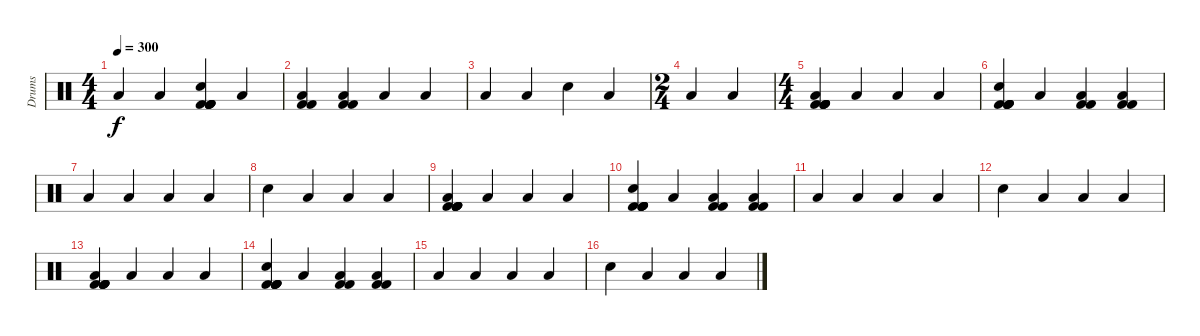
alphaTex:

\track ("Drums" "Drums") {instrument percussion}
\staff {score}
\articulation defaults
\ts (4 4)
\tempo 300
\clef neutral
\ks c "Low Floor Tom (hit)".4{dy f} "Low Floor Tom (hit)".4
("Electric Snare (hit)" "Kick (hit) 2" "Kick (hit) 2" "Kick (hit) 2" "Kick (hit) 2" "Kick (hit) 2").4 "Low Floor Tom (hit)".4 |
("Low Floor Tom (hit)" "Kick (hit) 2" "Kick (hit) 2").4 ("Low Floor Tom (hit)" "Kick (hit) 2" "Kick (hit) 2").4 "Low Floor Tom (hit)".4 "Low Floor Tom (hit)".4 |
"Low Floor Tom (hit)".4 "Low Floor Tom (hit)".4 "Electric Snare (hit)".4 "Low Floor Tom (hit)".4 |
\ts (2 4)
"Low Floor Tom (hit)".4 "Low Floor Tom (hit)".4 |
\ts (4 4)
("Low Floor Tom (hit)" "Kick (hit) 2" "Kick (hit) 2" "Kick (hit) 2" "Kick (hit) 2" "Kick (hit) 2").4 "Low Floor Tom (hit)".4 "Low Floor Tom (hit)".4 "Low Floor Tom (hit)".4 |
("Electric Snare (hit)" "Kick (hit) 2" "Kick (hit) 2" "Kick (hit) 2" "Kick (hit) 2" "Kick (hit) 2").4 "Low Floor Tom (hit)".4 ("Low Floor Tom (hit)" "Kick (hit) 2" "Kick (hit) 2").4 ("Low Floor Tom (hit)" "Kick (hit) 2" "Kick (hit) 2").4 |
"Low Floor Tom (hit)".4 "Low Floor Tom (hit)".4 "Low Floor Tom (hit)".4 "Low Floor Tom (hit)".4 |
"Electric Snare (hit)".4 "Low Floor Tom (hit)".4 "Low Floor Tom (hit)".4 "Low Floor Tom (hit)".4 |
("Low Floor Tom (hit)" "Kick (hit) 2" "Kick (hit) 2" "Kick (hit) 2" "Kick (hit) 2" "Kick (hit) 2").4 "Low Floor Tom (hit)".4 "Low Floor Tom (hit)".4 "Low Floor Tom (hit)".4 |
("Electric Snare (hit)" "Kick (hit) 2" "Kick (hit) 2" "Kick (hit) 2" "Kick (hit) 2" "Kick (hit) 2").4 "Low Floor Tom (hit)".4 ("Low Floor Tom (hit)" "Kick (hit) 2" "Kick (hit) 2").4 ("Low Floor Tom (hit)" "Kick (hit) 2" "Kick (hit) 2").4 |
"Low Floor Tom (hit)".4 "Low Floor Tom (hit)".4 "Low Floor Tom (hit)".4 "Low Floor Tom (hit)".4 |
"Electric Snare (hit)".4 "Low Floor Tom (hit)".4 "Low Floor Tom (hit)".4 "Low Floor Tom (hit)".4 |
("Low Floor Tom (hit)" "Kick (hit) 2" "Kick (hit) 2" "Kick (hit) 2" "Kick (hit) 2" "Kick (hit) 2").4 "Low Floor Tom (hit)".4 "Low Floor Tom (hit)".4 "Low Floor Tom (hit)".4 |
("Electric Snare (hit)" "Kick (hit) 2" "Kick (hit) 2" "Kick (hit) 2" "Kick (hit) 2" "Kick (hit) 2").4 "Low Floor Tom (hit)".4 ("Low Floor Tom (hit)" "Kick (hit) 2" "Kick (hit) 2").4 ("Low Floor Tom (hit)" "Kick (hit) 2" "Kick (hit) 2").4 |
"Low Floor Tom (hit)".4 "Low Floor Tom (hit)".4 "Low Floor Tom (hit)".4 "Low Floor Tom (hit)".4 |
"Electric Snare (hit)".4 "Low Floor Tom (hit)".4 "Low Floor Tom (hit)".4 "Low Floor Tom (hit)".4
